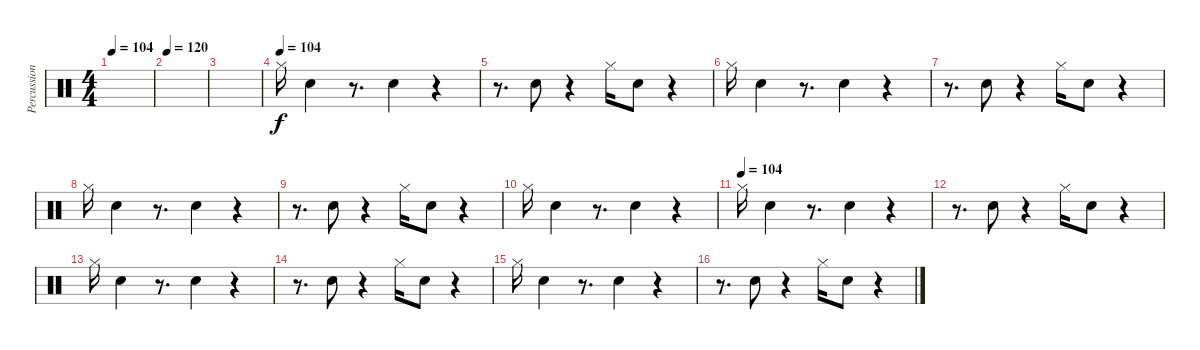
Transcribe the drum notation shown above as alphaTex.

\track ("Percussion(By Bela B.)" "Percussion") {instrument percussion}
\staff {score}
\articulation defaults
\ts (4 4)
\tempo 104
\clef neutral
\ks c
|
\tempo 120
|
|
\tempo (104)
"Hi-Hat (closed)".16{dy f} "Electric Snare (hit)".4 r.8{d} "Electric Snare (hit)".4 r.4 |
r.8{d} "Electric Snare (hit)".8 r.4 "Hi-Hat (closed)".16 "Electric Snare (hit)".8 r.4 |
"Hi-Hat (closed)".16 "Electric Snare (hit)".4 r.8{d} "Electric Snare (hit)".4 r.4 |
r.8{d} "Electric Snare (hit)".8 r.4 "Hi-Hat (closed)".16 "Electric Snare (hit)".8 r.4 |
"Hi-Hat (closed)".16 "Electric Snare (hit)".4 r.8{d} "Electric Snare (hit)".4 r.4 |
r.8{d} "Electric Snare (hit)".8 r.4 "Hi-Hat (closed)".16 "Electric Snare (hit)".8 r.4 |
"Hi-Hat (closed)".16 "Electric Snare (hit)".4 r.8{d} "Electric Snare (hit)".4 r.4 |
\tempo (104)
"Hi-Hat (closed)".16 "Electric Snare (hit)".4 r.8{d} "Electric Snare (hit)".4 r.4 |
r.8{d} "Electric Snare (hit)".8 r.4 "Hi-Hat (closed)".16 "Electric Snare (hit)".8 r.4 |
"Hi-Hat (closed)".16 "Electric Snare (hit)".4 r.8{d} "Electric Snare (hit)".4 r.4 |
r.8{d} "Electric Snare (hit)".8 r.4 "Hi-Hat (closed)".16 "Electric Snare (hit)".8 r.4 |
"Hi-Hat (closed)".16 "Electric Snare (hit)".4 r.8{d} "Electric Snare (hit)".4 r.4 |
r.8{d} "Electric Snare (hit)".8 r.4 "Hi-Hat (closed)".16 "Electric Snare (hit)".8 r.4
